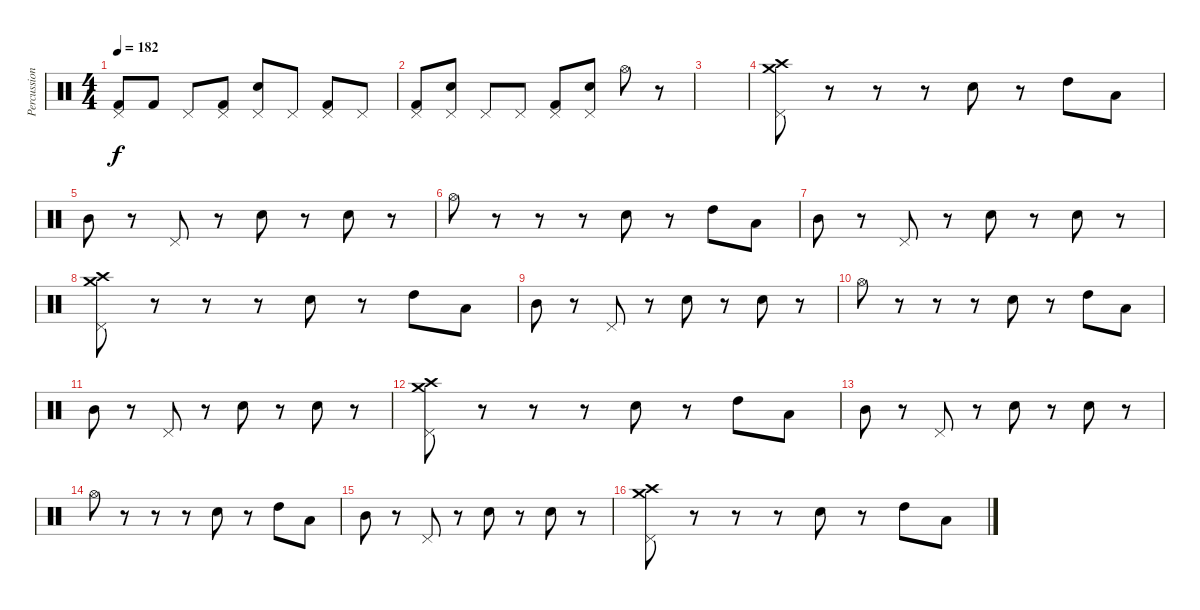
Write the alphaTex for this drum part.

\track ("Percussion" "Percussion") {instrument percussion}
\staff {score}
\articulation defaults
\ts (4 4)
\tempo 182
\clef neutral
\ks c
("Pedal Hi-Hat (hit)" "Kick (hit) 2").8{dy f} "Kick (hit) 2".8 "Pedal Hi-Hat (hit)".8 ("Pedal Hi-Hat (hit)" "Kick (hit) 2").8 ("Pedal Hi-Hat (hit)" "Snare (hit) 2").8 "Pedal Hi-Hat (hit)".8 ("Pedal Hi-Hat (hit)" "Kick (hit) 2").8 "Pedal Hi-Hat (hit)".8 |
("Pedal Hi-Hat (hit)" "Kick (hit) 2").8 ("Pedal Hi-Hat (hit)" "Snare (hit) 2").8 "Pedal Hi-Hat (hit)".8 "Pedal Hi-Hat (hit)".8 ("Pedal Hi-Hat (hit)" "Kick (hit) 2").8 ("Pedal Hi-Hat (hit)" "Snare (hit) 2").8 "Hi-Hat (open)".8 r.8 |
|
("Crash high (hit)" "Crash medium (hit)" "Pedal Hi-Hat (hit)").8 r.8 r.8 r.8 "Snare (hit) 2".8 r.8 "High Tom (hit)".8 "Low Tom (hit)".8 |
"Mid Tom (hit)".8 r.8 "Pedal Hi-Hat (hit)".8 r.8 "Snare (hit) 2".8 r.8 "Snare (hit) 2".8 r.8 |
"Hi-Hat (open)".8 r.8 r.8 r.8 "Snare (hit) 2".8 r.8 "High Tom (hit)".8 "Low Tom (hit)".8 |
"Mid Tom (hit)".8 r.8 "Pedal Hi-Hat (hit)".8 r.8 "Snare (hit) 2".8 r.8 "Snare (hit) 2".8 r.8 |
("Crash high (hit)" "Crash medium (hit)" "Pedal Hi-Hat (hit)").8 r.8 r.8 r.8 "Snare (hit) 2".8 r.8 "High Tom (hit)".8 "Low Tom (hit)".8 |
"Mid Tom (hit)".8 r.8 "Pedal Hi-Hat (hit)".8 r.8 "Snare (hit) 2".8 r.8 "Snare (hit) 2".8 r.8 |
"Hi-Hat (open)".8 r.8 r.8 r.8 "Snare (hit) 2".8 r.8 "High Tom (hit)".8 "Low Tom (hit)".8 |
"Mid Tom (hit)".8 r.8 "Pedal Hi-Hat (hit)".8 r.8 "Snare (hit) 2".8 r.8 "Snare (hit) 2".8 r.8 |
("Crash high (hit)" "Crash medium (hit)" "Pedal Hi-Hat (hit)").8 r.8 r.8 r.8 "Snare (hit) 2".8 r.8 "High Tom (hit)".8 "Low Tom (hit)".8 |
"Mid Tom (hit)".8 r.8 "Pedal Hi-Hat (hit)".8 r.8 "Snare (hit) 2".8 r.8 "Snare (hit) 2".8 r.8 |
"Hi-Hat (open)".8 r.8 r.8 r.8 "Snare (hit) 2".8 r.8 "High Tom (hit)".8 "Low Tom (hit)".8 |
"Mid Tom (hit)".8 r.8 "Pedal Hi-Hat (hit)".8 r.8 "Snare (hit) 2".8 r.8 "Snare (hit) 2".8 r.8 |
("Crash high (hit)" "Crash medium (hit)" "Pedal Hi-Hat (hit)").8 r.8 r.8 r.8 "Snare (hit) 2".8 r.8 "High Tom (hit)".8 "Low Tom (hit)".8
